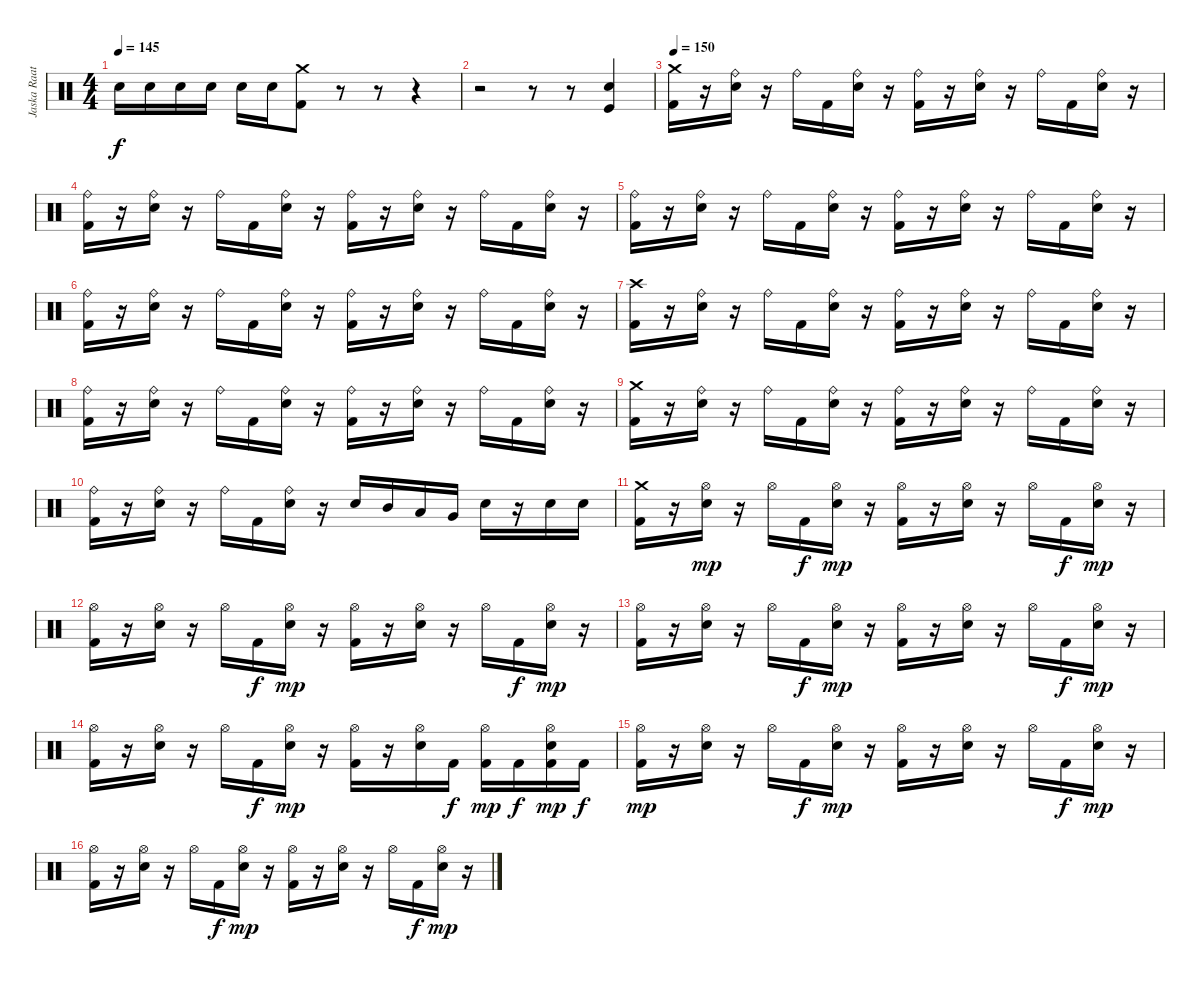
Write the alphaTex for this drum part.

\track ("Jaska Raatikainen" "Jaska Raat") {instrument percussion}
\staff {score}
\articulation defaults
\ts (4 4)
\tempo 145
\clef neutral
\ks c "Electric Snare (hit)".16{dy f} "Electric Snare (hit)".16 "Electric Snare (hit)".16 "Electric Snare (hit)".16 "Electric Snare (hit)".16 "Electric Snare (hit)".16
("Crash medium (hit)" "Kick (hit) 2").8 r.8 r.8 r.4 |
r.2 r.8 r.8 ("Kick (hit)" "Electric Snare (hit)").4 |
\tempo 150
("Crash medium (hit)" "Kick (hit) 2").16 r.16 ("Ride (bell)" "Electric Snare (hit)").16 r.16 "Ride (bell)".16 "Kick (hit) 2".16 ("Ride (bell)" "Electric Snare (hit)").16 r.16 ("Ride (bell)" "Kick (hit) 2").16 r.16 ("Ride (bell)" "Electric Snare (hit)").16 r.16 "Ride (bell)".16 "Kick (hit) 2".16 ("Ride (bell)" "Electric Snare (hit)").16 r.16 |
("Ride (bell)" "Kick (hit) 2").16 r.16 ("Ride (bell)" "Electric Snare (hit)").16 r.16 "Ride (bell)".16 "Kick (hit) 2".16 ("Ride (bell)" "Electric Snare (hit)").16 r.16 ("Ride (bell)" "Kick (hit) 2").16 r.16 ("Ride (bell)" "Electric Snare (hit)").16 r.16 "Ride (bell)".16 "Kick (hit) 2".16 ("Ride (bell)" "Electric Snare (hit)").16 r.16 |
("Ride (bell)" "Kick (hit) 2").16 r.16 ("Ride (bell)" "Electric Snare (hit)").16 r.16 "Ride (bell)".16 "Kick (hit) 2".16 ("Ride (bell)" "Electric Snare (hit)").16 r.16 ("Ride (bell)" "Kick (hit) 2").16 r.16 ("Ride (bell)" "Electric Snare (hit)").16 r.16 "Ride (bell)".16 "Kick (hit) 2".16 ("Ride (bell)" "Electric Snare (hit)").16 r.16 |
("Ride (bell)" "Kick (hit) 2").16 r.16 ("Ride (bell)" "Electric Snare (hit)").16 r.16 "Ride (bell)".16 "Kick (hit) 2".16 ("Ride (bell)" "Electric Snare (hit)").16 r.16 ("Ride (bell)" "Kick (hit) 2").16 r.16 ("Ride (bell)" "Electric Snare (hit)").16 r.16 "Ride (bell)".16 "Kick (hit) 2".16 ("Ride (bell)" "Electric Snare (hit)").16 r.16 |
("Crash high (hit)" "Kick (hit) 2").16 r.16 ("Ride (bell)" "Electric Snare (hit)").16 r.16 "Ride (bell)".16 "Kick (hit) 2".16 ("Ride (bell)" "Electric Snare (hit)").16 r.16 ("Ride (bell)" "Kick (hit) 2").16 r.16 ("Ride (bell)" "Electric Snare (hit)").16 r.16 "Ride (bell)".16 "Kick (hit) 2".16 ("Ride (bell)" "Electric Snare (hit)").16 r.16 |
("Ride (bell)" "Kick (hit) 2").16 r.16 ("Ride (bell)" "Electric Snare (hit)").16 r.16 "Ride (bell)".16 "Kick (hit) 2".16 ("Ride (bell)" "Electric Snare (hit)").16 r.16 ("Ride (bell)" "Kick (hit) 2").16 r.16 ("Ride (bell)" "Electric Snare (hit)").16 r.16 "Ride (bell)".16 "Kick (hit) 2".16 ("Ride (bell)" "Electric Snare (hit)").16 r.16 |
("Crash medium (hit)" "Kick (hit) 2").16 r.16 ("Ride (bell)" "Electric Snare (hit)").16 r.16 "Ride (bell)".16 "Kick (hit) 2".16 ("Ride (bell)" "Electric Snare (hit)").16 r.16 ("Ride (bell)" "Kick (hit) 2").16 r.16 ("Ride (bell)" "Electric Snare (hit)").16 r.16 "Ride (bell)".16 "Kick (hit) 2".16 ("Ride (bell)" "Electric Snare (hit)").16 r.16 |
("Ride (bell)" "Kick (hit) 2").16 r.16 ("Ride (bell)" "Electric Snare (hit)").16 r.16 "Ride (bell)".16 "Kick (hit) 2".16 ("Ride (bell)" "Electric Snare (hit)").16 r.16 "Electric Snare (hit)".16 "Mid Tom (hit)".16 "Low Tom (hit)".16 "Very Low Tom (hit)".16 "Electric Snare (hit)".16 r.16 "Electric Snare (hit)".16 "Electric Snare (hit)".16 |
("Crash medium (hit)" "Kick (hit) 2").16 r.16 ("Hi-Hat (open)" "Electric Snare (hit)").16{dy mp} r.16 "Hi-Hat (open)".16 "Kick (hit) 2".16{dy f} ("Hi-Hat (open)" "Electric Snare (hit)").16{dy mp} r.16 ("Hi-Hat (open)" "Kick (hit) 2").16 r.16 ("Hi-Hat (open)" "Electric Snare (hit)").16 r.16 "Hi-Hat (open)".16 "Kick (hit) 2".16{dy f} ("Hi-Hat (open)" "Electric Snare (hit)").16{dy mp} r.16 |
("Hi-Hat (open)" "Kick (hit) 2").16 r.16 ("Hi-Hat (open)" "Electric Snare (hit)").16 r.16 "Hi-Hat (open)".16 "Kick (hit) 2".16{dy f} ("Hi-Hat (open)" "Electric Snare (hit)").16{dy mp} r.16 ("Hi-Hat (open)" "Kick (hit) 2").16 r.16 ("Hi-Hat (open)" "Electric Snare (hit)").16 r.16 "Hi-Hat (open)".16 "Kick (hit) 2".16{dy f} ("Hi-Hat (open)" "Electric Snare (hit)").16{dy mp} r.16 |
("Hi-Hat (open)" "Kick (hit) 2").16 r.16 ("Hi-Hat (open)" "Electric Snare (hit)").16 r.16 "Hi-Hat (open)".16 "Kick (hit) 2".16{dy f} ("Hi-Hat (open)" "Electric Snare (hit)").16{dy mp} r.16 ("Hi-Hat (open)" "Kick (hit) 2").16 r.16 ("Hi-Hat (open)" "Electric Snare (hit)").16 r.16 "Hi-Hat (open)".16 "Kick (hit) 2".16{dy f} ("Hi-Hat (open)" "Electric Snare (hit)").16{dy mp} r.16 |
("Hi-Hat (open)" "Kick (hit) 2").16 r.16 ("Hi-Hat (open)" "Electric Snare (hit)").16 r.16 "Hi-Hat (open)".16 "Kick (hit) 2".16{dy f} ("Hi-Hat (open)" "Electric Snare (hit)").16{dy mp} r.16 ("Hi-Hat (open)" "Kick (hit) 2").16 r.16 ("Hi-Hat (open)" "Electric Snare (hit)").16 "Kick (hit) 2".16{dy f} ("Hi-Hat (open)" "Kick (hit) 2").16{dy mp} "Kick (hit) 2".16{dy f} ("Hi-Hat (open)" "Electric Snare (hit)" "Kick (hit) 2").16{dy mp} "Kick (hit) 2".16{dy f} |
("Hi-Hat (open)" "Kick (hit) 2").16{dy mp} r.16 ("Hi-Hat (open)" "Electric Snare (hit)").16 r.16 "Hi-Hat (open)".16 "Kick (hit) 2".16{dy f} ("Hi-Hat (open)" "Electric Snare (hit)").16{dy mp} r.16 ("Hi-Hat (open)" "Kick (hit) 2").16 r.16 ("Hi-Hat (open)" "Electric Snare (hit)").16 r.16 "Hi-Hat (open)".16 "Kick (hit) 2".16{dy f} ("Hi-Hat (open)" "Electric Snare (hit)").16{dy mp} r.16 |
("Hi-Hat (open)" "Kick (hit) 2").16 r.16 ("Hi-Hat (open)" "Electric Snare (hit)").16 r.16 "Hi-Hat (open)".16 "Kick (hit) 2".16{dy f} ("Hi-Hat (open)" "Electric Snare (hit)").16{dy mp} r.16 ("Hi-Hat (open)" "Kick (hit) 2").16 r.16 ("Hi-Hat (open)" "Electric Snare (hit)").16 r.16 "Hi-Hat (open)".16 "Kick (hit) 2".16{dy f} ("Hi-Hat (open)" "Electric Snare (hit)").16{dy mp} r.16
